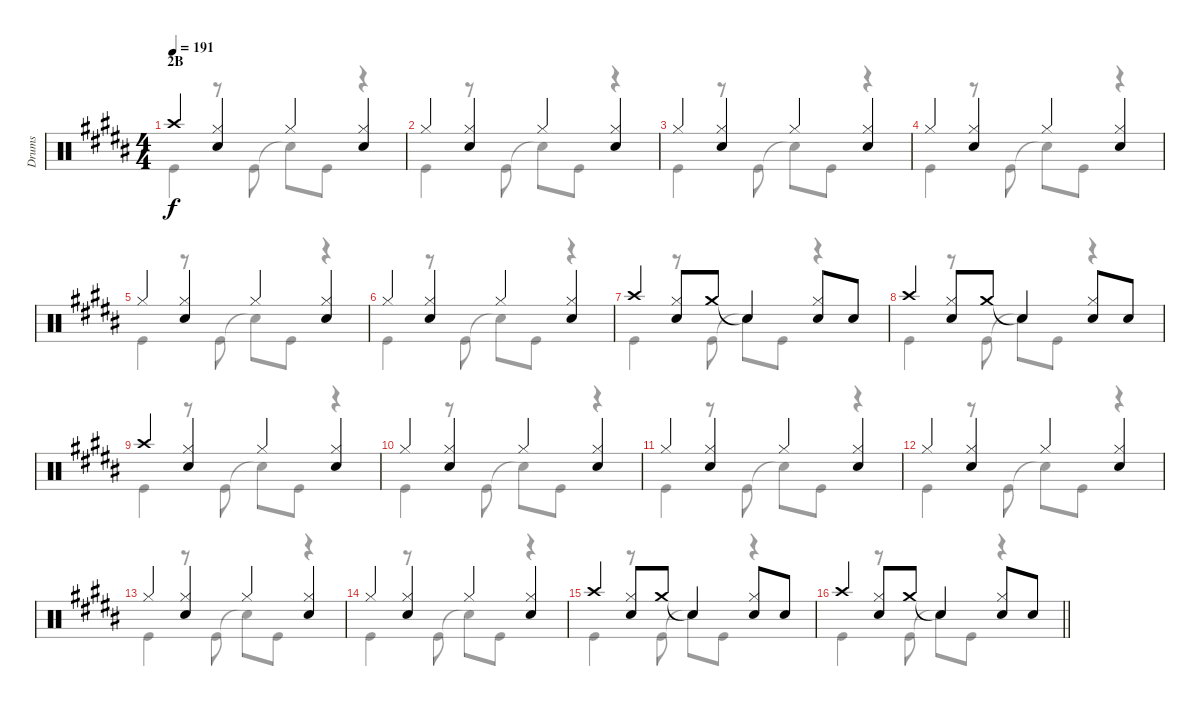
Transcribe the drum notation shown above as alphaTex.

\track ("Drums" "Drums") {instrument percussion}
\staff {score}
\articulation defaults
\voice
\ts (4 4)
\section ("" "2B")
\tempo 191
\clef neutral
\ks b "Crash high (hit)".4{dy f}
("Hi-Hat (closed)" "Snare (hit) 2").4 "Hi-Hat (closed)".4 ("Hi-Hat (closed)" "Snare (hit) 2").4 |
"Hi-Hat (closed)".4 ("Hi-Hat (closed)" "Snare (hit) 2").4 "Hi-Hat (closed)".4 ("Hi-Hat (closed)" "Snare (hit) 2").4 |
"Hi-Hat (closed)".4 ("Hi-Hat (closed)" "Snare (hit) 2").4 "Hi-Hat (closed)".4 ("Hi-Hat (closed)" "Snare (hit) 2").4 |
"Hi-Hat (closed)".4 ("Hi-Hat (closed)" "Snare (hit) 2").4 "Hi-Hat (closed)".4 ("Hi-Hat (closed)" "Snare (hit) 2").4 |
"Hi-Hat (closed)".4 ("Hi-Hat (closed)" "Snare (hit) 2").4 "Hi-Hat (closed)".4 ("Hi-Hat (closed)" "Snare (hit) 2").4 |
"Hi-Hat (closed)".4 ("Hi-Hat (closed)" "Snare (hit) 2").4 "Hi-Hat (closed)".4 ("Hi-Hat (closed)" "Snare (hit) 2").4 |
"Crash high (hit)".4 ("Hi-Hat (closed)" "Snare (hit) 2").8 "Crash medium (hit)".8 "Snare (hit)"{t}.4 ("Hi-Hat (closed)" "Snare (hit) 2").8 "Snare (hit) 2".8 |
"Crash high (hit)".4 ("Hi-Hat (closed)" "Snare (hit) 2").8 "Crash medium (hit)".8 "Snare (hit)"{t}.4 ("Hi-Hat (closed)" "Snare (hit) 2").8 "Snare (hit) 2".8 |
"Crash high (hit)".4 ("Hi-Hat (closed)" "Snare (hit) 2").4 "Hi-Hat (closed)".4 ("Hi-Hat (closed)" "Snare (hit) 2").4 |
"Hi-Hat (closed)".4 ("Hi-Hat (closed)" "Snare (hit) 2").4 "Hi-Hat (closed)".4 ("Hi-Hat (closed)" "Snare (hit) 2").4 |
"Hi-Hat (closed)".4 ("Hi-Hat (closed)" "Snare (hit) 2").4 "Hi-Hat (closed)".4 ("Hi-Hat (closed)" "Snare (hit) 2").4 |
"Hi-Hat (closed)".4 ("Hi-Hat (closed)" "Snare (hit) 2").4 "Hi-Hat (closed)".4 ("Hi-Hat (closed)" "Snare (hit) 2").4 |
"Hi-Hat (closed)".4 ("Hi-Hat (closed)" "Snare (hit) 2").4 "Hi-Hat (closed)".4 ("Hi-Hat (closed)" "Snare (hit) 2").4 |
"Hi-Hat (closed)".4 ("Hi-Hat (closed)" "Snare (hit) 2").4 "Hi-Hat (closed)".4 ("Hi-Hat (closed)" "Snare (hit) 2").4 |
"Crash high (hit)".4 ("Hi-Hat (closed)" "Snare (hit) 2").8 "Crash medium (hit)".8 "Snare (hit)"{t}.4 ("Hi-Hat (closed)" "Snare (hit) 2").8 "Snare (hit) 2".8 |
\barLineRight lightlight "Crash high (hit)".4
("Hi-Hat (closed)" "Snare (hit) 2").8 "Crash medium (hit)".8 "Snare (hit)"{t}.4 ("Hi-Hat (closed)" "Snare (hit) 2").8 "Snare (hit) 2".8
\voice
\clef neutral
\ottava regular
\simile none
\ks b "Kick (hit)".4{dy f}
r.8 "Kick (hit)".8 "Snare (hit)"{t}.8 "Kick (hit)".8 r.4 |
"Kick (hit)".4 r.8 "Kick (hit)".8 "Snare (hit)"{t}.8 "Kick (hit)".8 r.4 |
"Kick (hit)".4 r.8 "Kick (hit)".8 "Snare (hit)"{t}.8 "Kick (hit)".8 r.4 |
"Kick (hit)".4 r.8 "Kick (hit)".8 "Snare (hit)"{t}.8 "Kick (hit)".8 r.4 |
"Kick (hit)".4 r.8 "Kick (hit)".8 "Snare (hit)"{t}.8 "Kick (hit)".8 r.4 |
"Kick (hit)".4 r.8 "Kick (hit)".8 "Snare (hit)"{t}.8 "Kick (hit)".8 r.4 |
"Kick (hit)".4 r.8 "Kick (hit)".8 "Snare (hit)"{t}.8 "Kick (hit)".8 r.4 |
"Kick (hit)".4 r.8 "Kick (hit)".8 "Snare (hit)"{t}.8 "Kick (hit)".8 r.4 |
"Kick (hit)".4 r.8 "Kick (hit)".8 "Snare (hit)"{t}.8 "Kick (hit)".8 r.4 |
"Kick (hit)".4 r.8 "Kick (hit)".8 "Snare (hit)"{t}.8 "Kick (hit)".8 r.4 |
"Kick (hit)".4 r.8 "Kick (hit)".8 "Snare (hit)"{t}.8 "Kick (hit)".8 r.4 |
"Kick (hit)".4 r.8 "Kick (hit)".8 "Snare (hit)"{t}.8 "Kick (hit)".8 r.4 |
"Kick (hit)".4 r.8 "Kick (hit)".8 "Snare (hit)"{t}.8 "Kick (hit)".8 r.4 |
"Kick (hit)".4 r.8 "Kick (hit)".8 "Snare (hit)"{t}.8 "Kick (hit)".8 r.4 |
"Kick (hit)".4 r.8 "Kick (hit)".8 "Snare (hit)"{t}.8 "Kick (hit)".8 r.4 |
\barLineRight lightlight "Kick (hit)".4
r.8 "Kick (hit)".8 "Snare (hit)"{t}.8 "Kick (hit)".8 r.4
